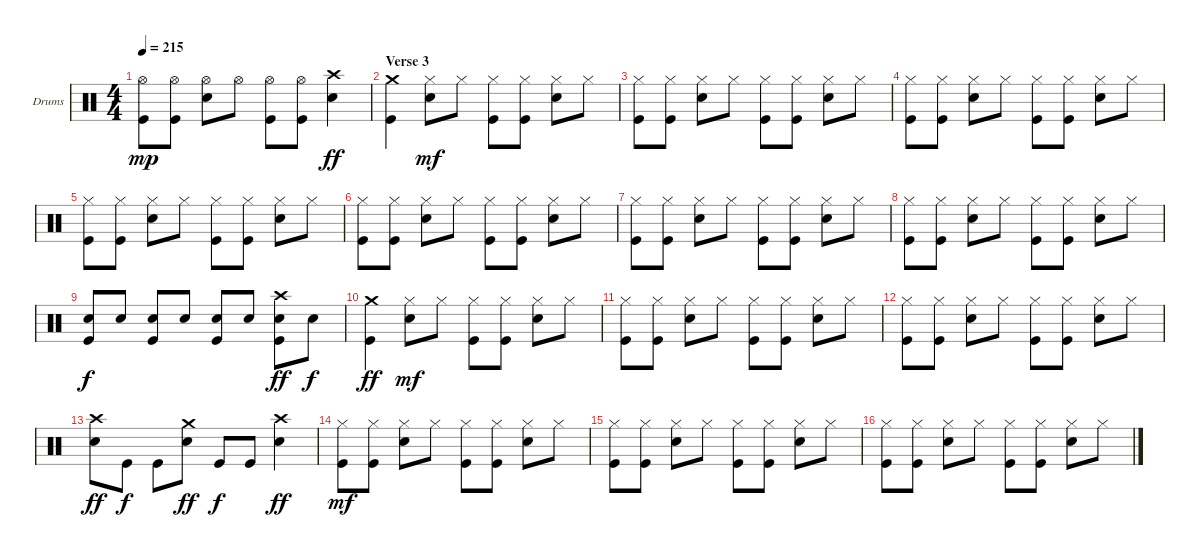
\bracketExtendMode groupsimilarinstruments
\firstSystemTrackNameOrientation horizontal
\otherSystemsTrackNameOrientation horizontal
\track ("Drumkit" "Drums") {instrument percussion}
\staff {score}
\articulation defaults
\ts (4 4)
\tempo 215
\clef neutral
\ks c
("Hi-Hat (open)" "Kick (hit)").8{dy mp} ("Hi-Hat (open)" "Kick (hit)").8 ("Hi-Hat (open)" "Snare (hit) 2").8 "Hi-Hat (open)".8 ("Hi-Hat (open)" "Kick (hit)").8 ("Hi-Hat (open)" "Kick (hit)").8 ("Crash high (hit)" "Snare (hit) 2").4{dy ff} |
\section ("" "Verse 3")
("Crash medium (hit)" "Kick (hit)").4 ("Hi-Hat (closed)" "Snare (hit) 2").8{dy mf} "Hi-Hat (closed)".8 ("Hi-Hat (closed)" "Kick (hit)").8 ("Hi-Hat (closed)" "Kick (hit)").8 ("Hi-Hat (closed)" "Snare (hit) 2").8 "Hi-Hat (closed)".8 |
("Hi-Hat (closed)" "Kick (hit)").8 ("Hi-Hat (closed)" "Kick (hit)").8 ("Hi-Hat (closed)" "Snare (hit) 2").8 "Hi-Hat (closed)".8 ("Hi-Hat (closed)" "Kick (hit)").8 ("Hi-Hat (closed)" "Kick (hit)").8 ("Hi-Hat (closed)" "Snare (hit) 2").8 "Hi-Hat (closed)".8 |
("Hi-Hat (closed)" "Kick (hit)").8 ("Hi-Hat (closed)" "Kick (hit)").8 ("Hi-Hat (closed)" "Snare (hit) 2").8 "Hi-Hat (closed)".8 ("Hi-Hat (closed)" "Kick (hit)").8 ("Hi-Hat (closed)" "Kick (hit)").8 ("Hi-Hat (closed)" "Snare (hit) 2").8 "Hi-Hat (closed)".8 |
("Hi-Hat (closed)" "Kick (hit)").8 ("Hi-Hat (closed)" "Kick (hit)").8 ("Hi-Hat (closed)" "Snare (hit) 2").8 "Hi-Hat (closed)".8 ("Hi-Hat (closed)" "Kick (hit)").8 ("Hi-Hat (closed)" "Kick (hit)").8 ("Hi-Hat (closed)" "Snare (hit) 2").8 "Hi-Hat (closed)".8 |
("Hi-Hat (closed)" "Kick (hit)").8 ("Hi-Hat (closed)" "Kick (hit)").8 ("Hi-Hat (closed)" "Snare (hit) 2").8 "Hi-Hat (closed)".8 ("Hi-Hat (closed)" "Kick (hit)").8 ("Hi-Hat (closed)" "Kick (hit)").8 ("Hi-Hat (closed)" "Snare (hit) 2").8 "Hi-Hat (closed)".8 |
("Hi-Hat (closed)" "Kick (hit)").8 ("Hi-Hat (closed)" "Kick (hit)").8 ("Hi-Hat (closed)" "Snare (hit) 2").8 "Hi-Hat (closed)".8 ("Hi-Hat (closed)" "Kick (hit)").8 ("Hi-Hat (closed)" "Kick (hit)").8 ("Hi-Hat (closed)" "Snare (hit) 2").8 "Hi-Hat (closed)".8 |
("Hi-Hat (closed)" "Kick (hit)").8 ("Hi-Hat (closed)" "Kick (hit)").8 ("Hi-Hat (closed)" "Snare (hit) 2").8 "Hi-Hat (closed)".8 ("Hi-Hat (closed)" "Kick (hit)").8 ("Hi-Hat (closed)" "Kick (hit)").8 ("Hi-Hat (closed)" "Snare (hit) 2").8 "Hi-Hat (closed)".8 |
("Snare (hit) 2" "Kick (hit)").8{dy f} "Snare (hit) 2".8 ("Snare (hit) 2" "Kick (hit)").8 "Snare (hit) 2".8 ("Snare (hit) 2" "Kick (hit)").8 "Snare (hit) 2".8 ("Crash high (hit)" "Snare (hit) 2" "Kick (hit)").8{dy ff} "Snare (hit) 2".8{dy f} |
("Crash medium (hit)" "Kick (hit)").4{dy ff} ("Hi-Hat (closed)" "Snare (hit) 2").8{dy mf} "Hi-Hat (closed)".8 ("Hi-Hat (closed)" "Kick (hit)").8 ("Hi-Hat (closed)" "Kick (hit)").8 ("Hi-Hat (closed)" "Snare (hit) 2").8 "Hi-Hat (closed)".8 |
("Hi-Hat (closed)" "Kick (hit)").8 ("Hi-Hat (closed)" "Kick (hit)").8 ("Hi-Hat (closed)" "Snare (hit) 2").8 "Hi-Hat (closed)".8 ("Hi-Hat (closed)" "Kick (hit)").8 ("Hi-Hat (closed)" "Kick (hit)").8 ("Hi-Hat (closed)" "Snare (hit) 2").8 "Hi-Hat (closed)".8 |
("Hi-Hat (closed)" "Kick (hit)").8 ("Hi-Hat (closed)" "Kick (hit)").8 ("Hi-Hat (closed)" "Snare (hit) 2").8 "Hi-Hat (closed)".8 ("Hi-Hat (closed)" "Kick (hit)").8 ("Hi-Hat (closed)" "Kick (hit)").8 ("Hi-Hat (closed)" "Snare (hit) 2").8 "Hi-Hat (closed)".8 |
("Crash high (hit)" "Snare (hit) 2").8{dy ff} "Kick (hit)".8{dy f} "Kick (hit)".8 ("Crash medium (hit)" "Snare (hit) 2").8{dy ff} "Kick (hit)".8{dy f} "Kick (hit)".8 ("Crash high (hit)" "Snare (hit) 2").4{dy ff} |
("Hi-Hat (closed)" "Kick (hit)").8{dy mf} ("Hi-Hat (closed)" "Kick (hit)").8 ("Hi-Hat (closed)" "Snare (hit) 2").8 "Hi-Hat (closed)".8 ("Hi-Hat (closed)" "Kick (hit)").8 ("Hi-Hat (closed)" "Kick (hit)").8 ("Hi-Hat (closed)" "Snare (hit) 2").8 "Hi-Hat (closed)".8 |
("Hi-Hat (closed)" "Kick (hit)").8 ("Hi-Hat (closed)" "Kick (hit)").8 ("Hi-Hat (closed)" "Snare (hit) 2").8 "Hi-Hat (closed)".8 ("Hi-Hat (closed)" "Kick (hit)").8 ("Hi-Hat (closed)" "Kick (hit)").8 ("Hi-Hat (closed)" "Snare (hit) 2").8 "Hi-Hat (closed)".8 |
("Hi-Hat (closed)" "Kick (hit)").8 ("Hi-Hat (closed)" "Kick (hit)").8 ("Hi-Hat (closed)" "Snare (hit) 2").8 "Hi-Hat (closed)".8 ("Hi-Hat (closed)" "Kick (hit)").8 ("Hi-Hat (closed)" "Kick (hit)").8 ("Hi-Hat (closed)" "Snare (hit) 2").8 "Hi-Hat (closed)".8
